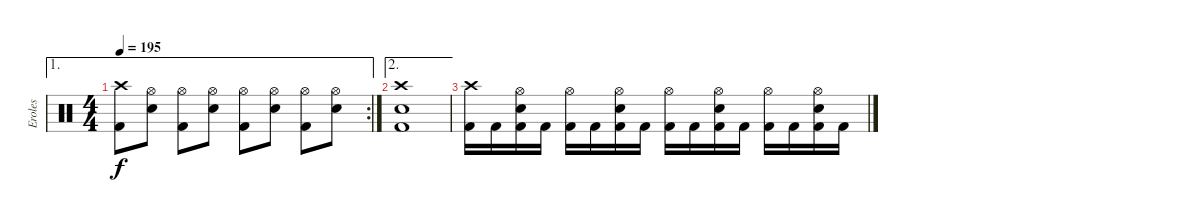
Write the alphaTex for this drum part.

\track ("Eroles" "Eroles") {instrument percussion}
\staff {score}
\articulation defaults
\ae 1
\rc 2
\ts (4 4)
\tempo 195
\clef neutral
\ks c
("Crash high (hit)" "Kick (hit) 2").8{dy f} ("Hi-Hat (open)" "Snare (hit) 2").8 ("Hi-Hat (open)" "Kick (hit) 2").8 ("Hi-Hat (open)" "Snare (hit) 2").8 ("Hi-Hat (open)" "Kick (hit) 2").8 ("Hi-Hat (open)" "Snare (hit) 2").8 ("Hi-Hat (open)" "Kick (hit) 2").8 ("Hi-Hat (open)" "Snare (hit) 2").8 |
\ae 2
("Crash high (hit)" "Snare (hit) 2" "Kick (hit) 2").1 |
("Crash high (hit)" "Kick (hit) 2").16{volume 1} "Kick (hit) 2".16 ("Hi-Hat (open)" "Snare (hit) 2" "Kick (hit) 2").16 "Kick (hit) 2".16 ("Hi-Hat (open)" "Kick (hit) 2").16 "Kick (hit) 2".16 ("Hi-Hat (open)" "Snare (hit) 2" "Kick (hit) 2").16 "Kick (hit) 2".16 ("Hi-Hat (open)" "Kick (hit) 2").16 "Kick (hit) 2".16 ("Hi-Hat (open)" "Snare (hit) 2" "Kick (hit) 2").16 "Kick (hit) 2".16 ("Hi-Hat (open)" "Kick (hit) 2").16 "Kick (hit) 2".16 ("Hi-Hat (open)" "Snare (hit) 2" "Kick (hit) 2").16 "Kick (hit) 2".16
